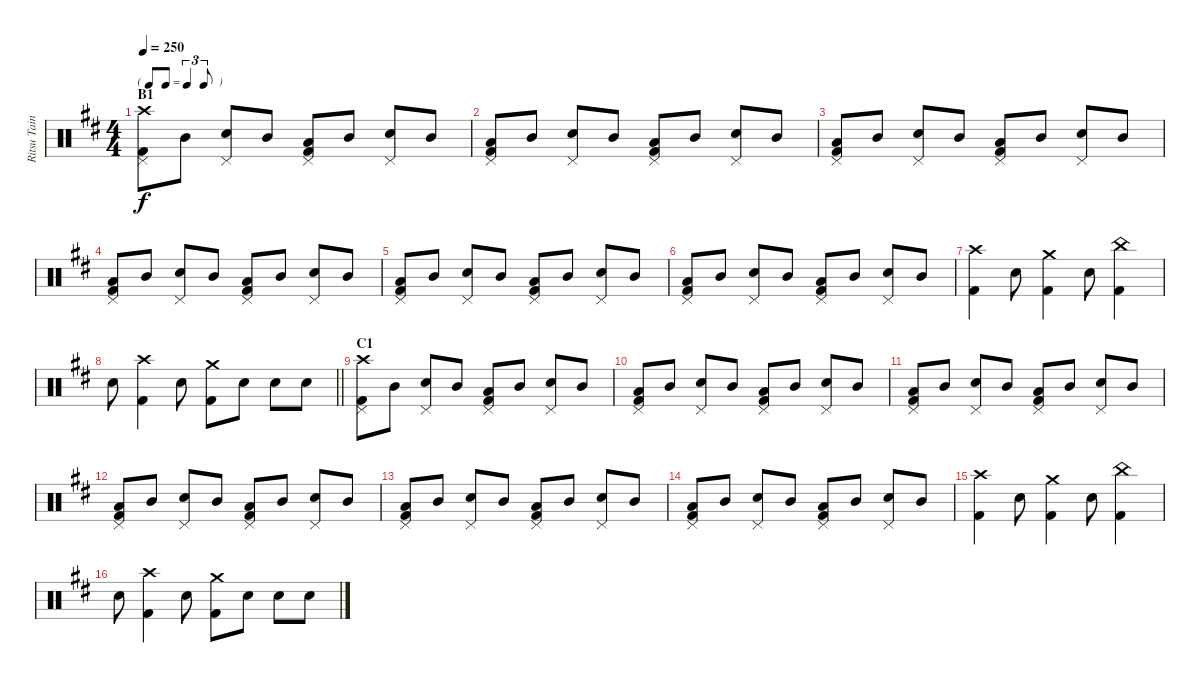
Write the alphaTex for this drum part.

\track ("Ritsu Tainaka" "Ritsu Tain") {instrument percussion}
\staff {score}
\articulation defaults
\ts (4 4)
\tf triplet8th
\section ("" "B1")
\tempo 250
\clef neutral
\ks d
("Crash high (hit)" "Pedal Hi-Hat (hit)" "Kick (hit) 2").8{dy f} "Mid Tom (hit)".8 ("Pedal Hi-Hat (hit)" "Electric Snare (hit)").8 "Mid Tom (hit)".8 ("Pedal Hi-Hat (hit)" "Low Floor Tom (hit)" "Kick (hit) 2").8 "Mid Tom (hit)".8 ("Pedal Hi-Hat (hit)" "Electric Snare (hit)").8 "Mid Tom (hit)".8 |
("Pedal Hi-Hat (hit)" "Low Floor Tom (hit)" "Kick (hit) 2").8 "Mid Tom (hit)".8 ("Pedal Hi-Hat (hit)" "Electric Snare (hit)").8 "Mid Tom (hit)".8 ("Pedal Hi-Hat (hit)" "Low Floor Tom (hit)" "Kick (hit) 2").8 "Mid Tom (hit)".8 ("Pedal Hi-Hat (hit)" "Electric Snare (hit)").8 "Mid Tom (hit)".8 |
("Pedal Hi-Hat (hit)" "Low Floor Tom (hit)" "Kick (hit) 2").8 "Mid Tom (hit)".8 ("Pedal Hi-Hat (hit)" "Electric Snare (hit)").8 "Mid Tom (hit)".8 ("Pedal Hi-Hat (hit)" "Low Floor Tom (hit)" "Kick (hit) 2").8 "Mid Tom (hit)".8 ("Pedal Hi-Hat (hit)" "Electric Snare (hit)").8 "Mid Tom (hit)".8 |
("Pedal Hi-Hat (hit)" "Low Floor Tom (hit)" "Kick (hit) 2").8 "Mid Tom (hit)".8 ("Pedal Hi-Hat (hit)" "Electric Snare (hit)").8 "Mid Tom (hit)".8 ("Pedal Hi-Hat (hit)" "Low Floor Tom (hit)" "Kick (hit) 2").8 "Mid Tom (hit)".8 ("Pedal Hi-Hat (hit)" "Electric Snare (hit)").8 "Mid Tom (hit)".8 |
("Pedal Hi-Hat (hit)" "Low Floor Tom (hit)" "Kick (hit) 2").8 "Mid Tom (hit)".8 ("Pedal Hi-Hat (hit)" "Electric Snare (hit)").8 "Mid Tom (hit)".8 ("Pedal Hi-Hat (hit)" "Low Floor Tom (hit)" "Kick (hit) 2").8 "Mid Tom (hit)".8 ("Pedal Hi-Hat (hit)" "Electric Snare (hit)").8 "Mid Tom (hit)".8 |
("Pedal Hi-Hat (hit)" "Low Floor Tom (hit)" "Kick (hit) 2").8 "Mid Tom (hit)".8 ("Pedal Hi-Hat (hit)" "Electric Snare (hit)").8 "Mid Tom (hit)".8 ("Pedal Hi-Hat (hit)" "Low Floor Tom (hit)" "Kick (hit) 2").8 "Mid Tom (hit)".8 ("Pedal Hi-Hat (hit)" "Electric Snare (hit)").8 "Mid Tom (hit)".8 |
("Crash high (hit)" "Kick (hit) 2").4 "Electric Snare (hit)".8 ("Crash medium (hit)" "Kick (hit) 2").4 "Electric Snare (hit)".8 ("China (hit)" "Kick (hit) 2").4 |
\barLineRight lightlight "Electric Snare (hit)".8
("Crash high (hit)" "Kick (hit) 2").4 "Electric Snare (hit)".8 ("Crash medium (hit)" "Kick (hit) 2").8 "Electric Snare (hit)".8 "Electric Snare (hit)".8 "Electric Snare (hit)".8 |
\section ("" "C1")
("Crash high (hit)" "Pedal Hi-Hat (hit)" "Kick (hit) 2").8 "Mid Tom (hit)".8 ("Pedal Hi-Hat (hit)" "Electric Snare (hit)").8 "Mid Tom (hit)".8 ("Pedal Hi-Hat (hit)" "Low Floor Tom (hit)" "Kick (hit) 2").8 "Mid Tom (hit)".8 ("Pedal Hi-Hat (hit)" "Electric Snare (hit)").8 "Mid Tom (hit)".8 |
("Pedal Hi-Hat (hit)" "Low Floor Tom (hit)" "Kick (hit) 2").8 "Mid Tom (hit)".8 ("Pedal Hi-Hat (hit)" "Electric Snare (hit)").8 "Mid Tom (hit)".8 ("Pedal Hi-Hat (hit)" "Low Floor Tom (hit)" "Kick (hit) 2").8 "Mid Tom (hit)".8 ("Pedal Hi-Hat (hit)" "Electric Snare (hit)").8 "Mid Tom (hit)".8 |
("Pedal Hi-Hat (hit)" "Low Floor Tom (hit)" "Kick (hit) 2").8 "Mid Tom (hit)".8 ("Pedal Hi-Hat (hit)" "Electric Snare (hit)").8 "Mid Tom (hit)".8 ("Pedal Hi-Hat (hit)" "Low Floor Tom (hit)" "Kick (hit) 2").8 "Mid Tom (hit)".8 ("Pedal Hi-Hat (hit)" "Electric Snare (hit)").8 "Mid Tom (hit)".8 |
("Pedal Hi-Hat (hit)" "Low Floor Tom (hit)" "Kick (hit) 2").8 "Mid Tom (hit)".8 ("Pedal Hi-Hat (hit)" "Electric Snare (hit)").8 "Mid Tom (hit)".8 ("Pedal Hi-Hat (hit)" "Low Floor Tom (hit)" "Kick (hit) 2").8 "Mid Tom (hit)".8 ("Pedal Hi-Hat (hit)" "Electric Snare (hit)").8 "Mid Tom (hit)".8 |
("Pedal Hi-Hat (hit)" "Low Floor Tom (hit)" "Kick (hit) 2").8 "Mid Tom (hit)".8 ("Pedal Hi-Hat (hit)" "Electric Snare (hit)").8 "Mid Tom (hit)".8 ("Pedal Hi-Hat (hit)" "Low Floor Tom (hit)" "Kick (hit) 2").8 "Mid Tom (hit)".8 ("Pedal Hi-Hat (hit)" "Electric Snare (hit)").8 "Mid Tom (hit)".8 |
("Pedal Hi-Hat (hit)" "Low Floor Tom (hit)" "Kick (hit) 2").8 "Mid Tom (hit)".8 ("Pedal Hi-Hat (hit)" "Electric Snare (hit)").8 "Mid Tom (hit)".8 ("Pedal Hi-Hat (hit)" "Low Floor Tom (hit)" "Kick (hit) 2").8 "Mid Tom (hit)".8 ("Pedal Hi-Hat (hit)" "Electric Snare (hit)").8 "Mid Tom (hit)".8 |
("Crash high (hit)" "Kick (hit) 2").4 "Electric Snare (hit)".8 ("Crash medium (hit)" "Kick (hit) 2").4 "Electric Snare (hit)".8 ("China (hit)" "Kick (hit) 2").4 |
"Electric Snare (hit)".8 ("Crash high (hit)" "Kick (hit) 2").4 "Electric Snare (hit)".8 ("Crash medium (hit)" "Kick (hit) 2").8 "Electric Snare (hit)".8 "Electric Snare (hit)".8 "Electric Snare (hit)".8
